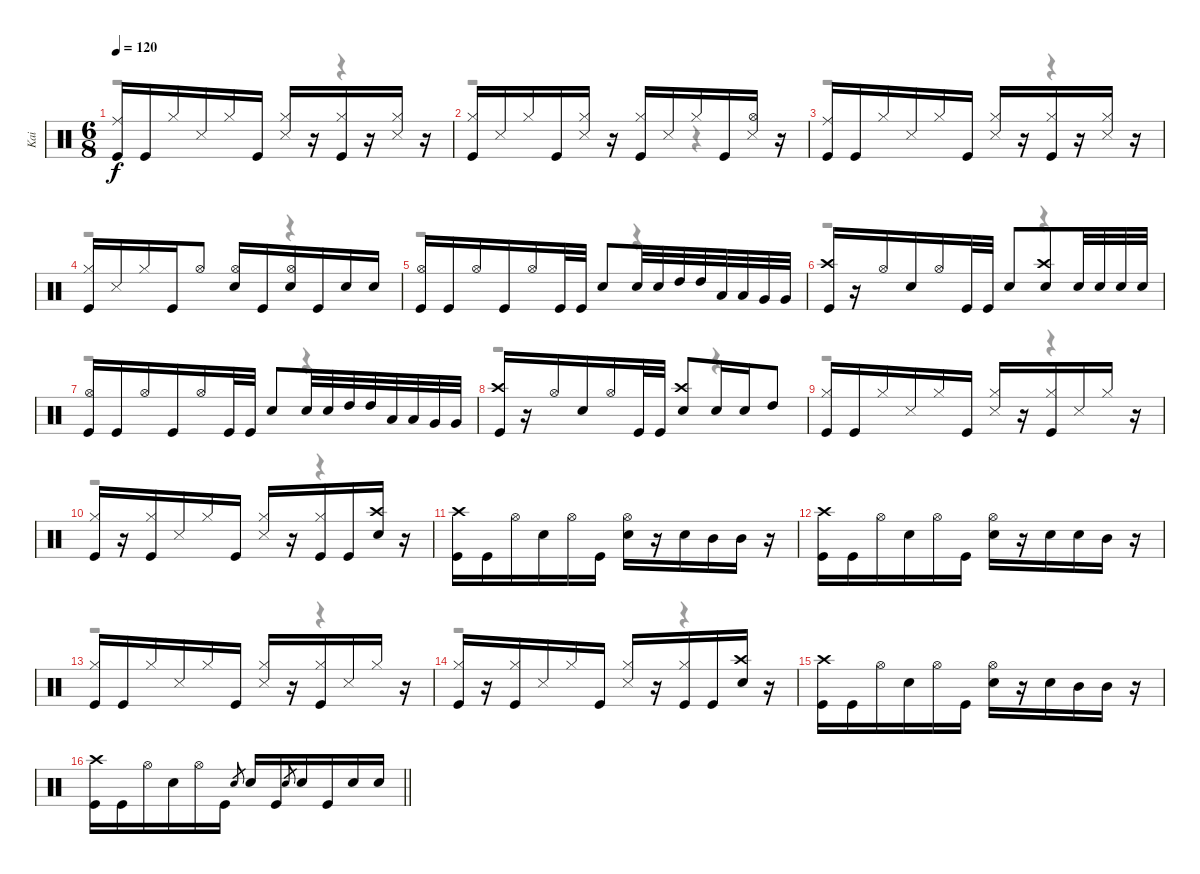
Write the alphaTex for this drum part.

\track ("Kai" "Kai") {instrument percussion}
\staff {score}
\articulation defaults
\voice
\ts (6 8)
\tempo 120
\clef neutral
\ks c
("Ride (middle)" "Kick (hit)").16{dy f} "Kick (hit)".16 "Hi-Hat (closed)".16 "Snare (side stick) 3".16 "Hi-Hat (closed)".16 "Kick (hit)".16 ("Hi-Hat (closed)" "Snare (side stick) 3").16 r.16 ("Hi-Hat (closed)" "Kick (hit)").16 r.16 ("Hi-Hat (closed)" "Snare (side stick) 3").16 r.16 |
("Hi-Hat (closed)" "Kick (hit)").16 "Snare (side stick) 3".16 "Hi-Hat (closed)".16 "Kick (hit)".16 ("Hi-Hat (closed)" "Snare (side stick) 3").16 r.16 ("Hi-Hat (closed)" "Kick (hit)").16 "Snare (side stick) 3".16 "Hi-Hat (closed)".16 "Kick (hit)".16 ("Hi-Hat (open)" "Snare (side stick) 3").16 r.16 |
("Ride (middle)" "Kick (hit)").16 "Kick (hit)".16 "Hi-Hat (closed)".16 "Snare (side stick) 3".16 "Hi-Hat (closed)".16 "Kick (hit)".16 ("Hi-Hat (closed)" "Snare (side stick) 3").16 r.16 ("Hi-Hat (closed)" "Kick (hit)").16 r.16 ("Hi-Hat (closed)" "Snare (side stick) 3").16 r.16 |
("Hi-Hat (closed)" "Kick (hit)").16 "Snare (side stick) 3".16 "Hi-Hat (closed)".16 "Kick (hit)".16 "Hi-Hat (open)".8 ("Hi-Hat (open)" "Snare (hit) 2").16 "Kick (hit)".16 ("Hi-Hat (open)" "Snare (hit) 2").16 "Kick (hit)".16 "Snare (hit) 2".16 "Snare (hit) 2".16 |
("Hi-Hat (open)" "Kick (hit)").16 "Kick (hit)".16 "Hi-Hat (open)".16 "Kick (hit)".16 "Hi-Hat (open)".16 "Kick (hit)".32 "Kick (hit)".32 "Snare (hit) 2".8 "Snare (hit) 2".32 "Snare (hit) 2".32 "High Tom (hit)".32 "High Tom (hit)".32 "Low Tom (hit)".32 "Low Tom (hit)".32 "Very Low Tom (hit)".32 "Very Low Tom (hit)".32 |
("Crash high (hit)" "Kick (hit)").16 r.16 "Hi-Hat (open)".16 "Snare (hit) 2".16 "Hi-Hat (open)".16 "Kick (hit)".32 "Kick (hit)".32 "Snare (hit) 2".8 ("Crash high (hit)" "Snare (hit) 2").8 "Snare (hit) 2".32 "Snare (hit) 2".32 "Snare (hit) 2".32 "Snare (hit) 2".32 |
("Hi-Hat (open)" "Kick (hit)").16 "Kick (hit)".16 "Hi-Hat (open)".16 "Kick (hit)".16 "Hi-Hat (open)".16 "Kick (hit)".32 "Kick (hit)".32 "Snare (hit) 2".8 "Snare (hit) 2".32 "Snare (hit) 2".32 "High Tom (hit)".32 "High Tom (hit)".32 "Low Tom (hit)".32 "Low Tom (hit)".32 "Very Low Tom (hit)".32 "Very Low Tom (hit)".32 |
("Crash high (hit)" "Kick (hit)").16 r.16 "Hi-Hat (open)".16 "Snare (hit) 2".16 "Hi-Hat (open)".16 "Kick (hit)".32 "Kick (hit)".32 ("Crash high (hit)" "Snare (hit) 2").8 "Snare (hit) 2".16 "Snare (hit) 2".16 "High Tom (hit)".8 |
("Hi-Hat (closed)" "Kick (hit)").16 "Kick (hit)".16 "Hi-Hat (closed)".16 "Snare (side stick) 3".16 "Hi-Hat (closed)".16 "Kick (hit)".16 ("Hi-Hat (closed)" "Snare (side stick) 3").16 r.16 ("Hi-Hat (closed)" "Kick (hit)").16 "Snare (side stick) 3".16 "Hi-Hat (closed)".16 r.16 |
("Hi-Hat (closed)" "Kick (hit)").16 r.16 ("Hi-Hat (closed)" "Kick (hit)").16 "Snare (side stick) 3".16 "Hi-Hat (closed)".16 "Kick (hit)".16 ("Hi-Hat (closed)" "Snare (side stick) 3").16 r.16 ("Hi-Hat (closed)" "Kick (hit)").16 "Kick (hit)".16 ("Crash high (hit)" "Snare (hit) 2").16 r.16 |
("Crash high (hit)" "Kick (hit)").16 "Kick (hit)".16 "Hi-Hat (open)".16 "Snare (hit) 2".16 "Hi-Hat (open)".16 "Kick (hit)".16 ("Hi-Hat (open)" "Snare (hit) 2").16 r.16 "Snare (hit) 2".16 "Mid Tom (hit)".16 "Mid Tom (hit)".16 r.16 |
("Crash high (hit)" "Kick (hit)").16 "Kick (hit)".16 "Hi-Hat (open)".16 "Snare (hit) 2".16 "Hi-Hat (open)".16 "Kick (hit)".16 ("Hi-Hat (open)" "Snare (hit) 2").16 r.16 "Snare (hit) 2".16 "Snare (hit) 2".16 "Mid Tom (hit)".16 r.16 |
("Hi-Hat (closed)" "Kick (hit)").16 "Kick (hit)".16 "Hi-Hat (closed)".16 "Snare (side stick) 3".16 "Hi-Hat (closed)".16 "Kick (hit)".16 ("Hi-Hat (closed)" "Snare (side stick) 3").16 r.16 ("Hi-Hat (closed)" "Kick (hit)").16 "Snare (side stick) 3".16 "Hi-Hat (closed)".16 r.16 |
("Hi-Hat (closed)" "Kick (hit)").16 r.16 ("Hi-Hat (closed)" "Kick (hit)").16 "Snare (side stick) 3".16 "Hi-Hat (closed)".16 "Kick (hit)".16 ("Hi-Hat (closed)" "Snare (side stick) 3").16 r.16 ("Hi-Hat (closed)" "Kick (hit)").16 "Kick (hit)".16 ("Crash high (hit)" "Snare (hit) 2").16 r.16 |
("Crash high (hit)" "Kick (hit)").16 "Kick (hit)".16 "Hi-Hat (open)".16 "Snare (hit) 2".16 "Hi-Hat (open)".16 "Kick (hit)".16 ("Hi-Hat (open)" "Snare (hit) 2").16 r.16 "Snare (hit) 2".16 "Mid Tom (hit)".16 "Mid Tom (hit)".16 r.16 |
\barLineRight lightlight
("Crash high (hit)" "Kick (hit)").16 "Kick (hit)".16 "Hi-Hat (open)".16 "Snare (hit) 2".16 "Hi-Hat (open)".16 "Kick (hit)".16 "Snare (hit) 2".8{gr} "Snare (hit) 2".16 "Kick (hit)".16 "Snare (hit) 2".8{gr} "Snare (hit) 2".16 "Kick (hit)".16 "Snare (hit) 2".16 "Snare (hit) 2".16
\voice
\clef neutral
\ottava regular
\simile none
\ks c
r.2{dy f} r.4 |
r.2 r.4 |
r.2 r.4 |
r.2 r.4 |
r.2 r.4 |
r.2 r.4 |
r.2 r.4 |
r.2 r.4 |
r.2 r.4 |
r.2 r.4 |
|
|
r.2 r.4 |
r.2 r.4 |
|
\barLineRight lightlight
